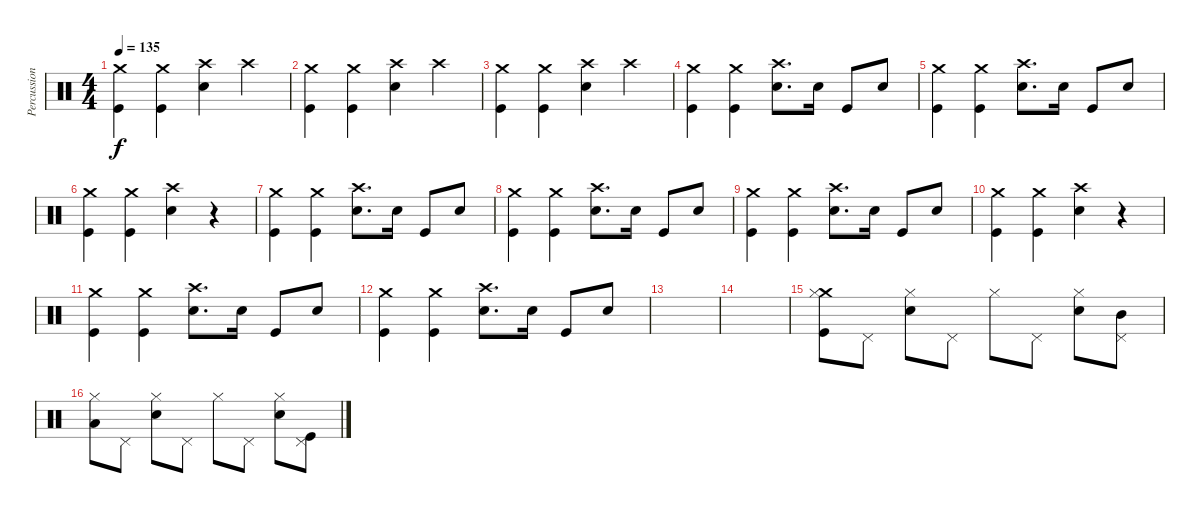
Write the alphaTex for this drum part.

\track ("Percussion - Mark Gajadhar" "Percussion") {instrument percussion}
\staff {score}
\articulation defaults
\ts (4 4)
\tempo 135
\clef neutral
\ks c
("Crash medium (hit)" "Kick (hit)").4{dy f} ("Crash medium (hit)" "Kick (hit)").4 ("Crash high (hit)" "Snare (hit) 2").4 "Crash high (hit)".4 |
("Crash medium (hit)" "Kick (hit)").4 ("Crash medium (hit)" "Kick (hit)").4 ("Crash high (hit)" "Snare (hit) 2").4 "Crash high (hit)".4 |
("Crash medium (hit)" "Kick (hit)").4 ("Crash medium (hit)" "Kick (hit)").4 ("Crash high (hit)" "Snare (hit) 2").4 "Crash high (hit)".4 |
("Crash medium (hit)" "Kick (hit)").4 ("Crash medium (hit)" "Kick (hit)").4 ("Crash high (hit)" "Snare (hit) 2").8{d} "Snare (hit) 2".16 "Kick (hit)".8 "Snare (hit) 2".8 |
("Crash medium (hit)" "Kick (hit)").4 ("Crash medium (hit)" "Kick (hit)").4 ("Crash high (hit)" "Snare (hit) 2").8{d} "Snare (hit) 2".16 "Kick (hit)".8 "Snare (hit) 2".8 |
("Crash medium (hit)" "Kick (hit)").4 ("Crash medium (hit)" "Kick (hit)").4 ("Crash high (hit)" "Snare (hit) 2").4 r.4 |
("Crash medium (hit)" "Kick (hit)").4 ("Crash medium (hit)" "Kick (hit)").4 ("Crash high (hit)" "Snare (hit) 2").8{d} "Snare (hit) 2".16 "Kick (hit)".8 "Snare (hit) 2".8 |
("Crash medium (hit)" "Kick (hit)").4 ("Crash medium (hit)" "Kick (hit)").4 ("Crash high (hit)" "Snare (hit) 2").8{d} "Snare (hit) 2".16 "Kick (hit)".8 "Snare (hit) 2".8 |
("Crash medium (hit)" "Kick (hit)").4 ("Crash medium (hit)" "Kick (hit)").4 ("Crash high (hit)" "Snare (hit) 2").8{d} "Snare (hit) 2".16 "Kick (hit)".8 "Snare (hit) 2".8 |
("Crash medium (hit)" "Kick (hit)").4 ("Crash medium (hit)" "Kick (hit)").4 ("Crash high (hit)" "Snare (hit) 2").4 r.4 |
("Crash medium (hit)" "Kick (hit)").4 ("Crash medium (hit)" "Kick (hit)").4 ("Crash high (hit)" "Snare (hit) 2").8{d} "Snare (hit) 2".16 "Kick (hit)".8 "Snare (hit) 2".8 |
("Crash medium (hit)" "Kick (hit)").4 ("Crash medium (hit)" "Kick (hit)").4 ("Crash high (hit)" "Snare (hit) 2").8{d} "Snare (hit) 2".16 "Kick (hit)".8 "Snare (hit) 2".8 |
|
|
("Crash medium (hit)" "Hi-Hat (closed)" "Kick (hit)").8 "Pedal Hi-Hat (hit)".8 ("Snare (hit) 2" "Hi-Hat (closed)").8 "Pedal Hi-Hat (hit)".8 "Hi-Hat (closed)".8 "Pedal Hi-Hat (hit)".8 ("Snare (hit) 2" "Hi-Hat (closed)").8 ("Pedal Hi-Hat (hit)" "Mid Tom (hit)").8 |
("Hi-Hat (closed)" "Low Tom (hit)").8 "Pedal Hi-Hat (hit)".8 ("Snare (hit) 2" "Hi-Hat (closed)").8 "Pedal Hi-Hat (hit)".8 "Hi-Hat (closed)".8 "Pedal Hi-Hat (hit)".8 ("Snare (hit) 2" "Hi-Hat (closed)").8 ("Pedal Hi-Hat (hit)" "Kick (hit)").8
